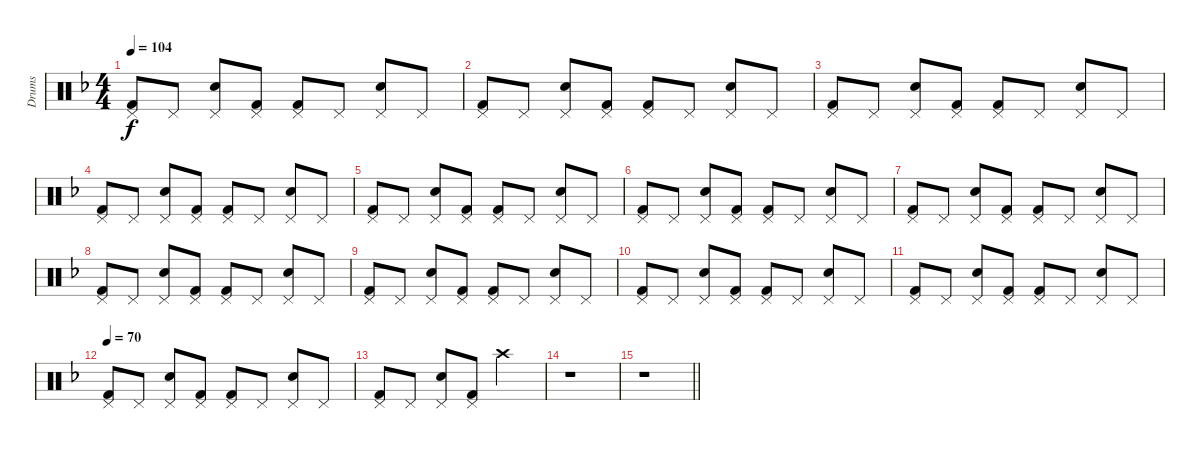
\track ("Drums" "Drums") {instrument percussion}
\staff {score}
\articulation defaults
\ts (4 4)
\tempo 104
\clef neutral
\ks f
("Pedal Hi-Hat (hit)" "Kick (hit) 2").8{dy f} "Pedal Hi-Hat (hit)".8 ("Pedal Hi-Hat (hit)" "Electric Snare (hit)").8 ("Pedal Hi-Hat (hit)" "Kick (hit) 2").8 ("Pedal Hi-Hat (hit)" "Kick (hit) 2").8 "Pedal Hi-Hat (hit)".8 ("Pedal Hi-Hat (hit)" "Electric Snare (hit)").8 "Pedal Hi-Hat (hit)".8 |
("Pedal Hi-Hat (hit)" "Kick (hit) 2").8 "Pedal Hi-Hat (hit)".8 ("Pedal Hi-Hat (hit)" "Electric Snare (hit)").8 ("Pedal Hi-Hat (hit)" "Kick (hit) 2").8 ("Pedal Hi-Hat (hit)" "Kick (hit) 2").8 "Pedal Hi-Hat (hit)".8 ("Pedal Hi-Hat (hit)" "Electric Snare (hit)").8 "Pedal Hi-Hat (hit)".8 |
("Pedal Hi-Hat (hit)" "Kick (hit) 2").8 "Pedal Hi-Hat (hit)".8 ("Pedal Hi-Hat (hit)" "Electric Snare (hit)").8 ("Pedal Hi-Hat (hit)" "Kick (hit) 2").8 ("Pedal Hi-Hat (hit)" "Kick (hit) 2").8 "Pedal Hi-Hat (hit)".8 ("Pedal Hi-Hat (hit)" "Electric Snare (hit)").8 "Pedal Hi-Hat (hit)".8 |
("Pedal Hi-Hat (hit)" "Kick (hit) 2").8 "Pedal Hi-Hat (hit)".8 ("Pedal Hi-Hat (hit)" "Electric Snare (hit)").8 ("Pedal Hi-Hat (hit)" "Kick (hit) 2").8 ("Pedal Hi-Hat (hit)" "Kick (hit) 2").8 "Pedal Hi-Hat (hit)".8 ("Pedal Hi-Hat (hit)" "Electric Snare (hit)").8 "Pedal Hi-Hat (hit)".8 |
("Pedal Hi-Hat (hit)" "Kick (hit) 2").8 "Pedal Hi-Hat (hit)".8 ("Pedal Hi-Hat (hit)" "Electric Snare (hit)").8 ("Pedal Hi-Hat (hit)" "Kick (hit) 2").8 ("Pedal Hi-Hat (hit)" "Kick (hit) 2").8 "Pedal Hi-Hat (hit)".8 ("Pedal Hi-Hat (hit)" "Electric Snare (hit)").8 "Pedal Hi-Hat (hit)".8 |
("Pedal Hi-Hat (hit)" "Kick (hit) 2").8 "Pedal Hi-Hat (hit)".8 ("Pedal Hi-Hat (hit)" "Electric Snare (hit)").8 ("Pedal Hi-Hat (hit)" "Kick (hit) 2").8 ("Pedal Hi-Hat (hit)" "Kick (hit) 2").8 "Pedal Hi-Hat (hit)".8 ("Pedal Hi-Hat (hit)" "Electric Snare (hit)").8 "Pedal Hi-Hat (hit)".8 |
("Pedal Hi-Hat (hit)" "Kick (hit) 2").8 "Pedal Hi-Hat (hit)".8 ("Pedal Hi-Hat (hit)" "Electric Snare (hit)").8 ("Pedal Hi-Hat (hit)" "Kick (hit) 2").8 ("Pedal Hi-Hat (hit)" "Kick (hit) 2").8 "Pedal Hi-Hat (hit)".8 ("Pedal Hi-Hat (hit)" "Electric Snare (hit)").8 "Pedal Hi-Hat (hit)".8 |
("Pedal Hi-Hat (hit)" "Kick (hit) 2").8 "Pedal Hi-Hat (hit)".8 ("Pedal Hi-Hat (hit)" "Electric Snare (hit)").8 ("Pedal Hi-Hat (hit)" "Kick (hit) 2").8 ("Pedal Hi-Hat (hit)" "Kick (hit) 2").8 "Pedal Hi-Hat (hit)".8 ("Pedal Hi-Hat (hit)" "Electric Snare (hit)").8 "Pedal Hi-Hat (hit)".8 |
("Pedal Hi-Hat (hit)" "Kick (hit) 2").8 "Pedal Hi-Hat (hit)".8 ("Pedal Hi-Hat (hit)" "Electric Snare (hit)").8 ("Pedal Hi-Hat (hit)" "Kick (hit) 2").8 ("Pedal Hi-Hat (hit)" "Kick (hit) 2").8 "Pedal Hi-Hat (hit)".8 ("Pedal Hi-Hat (hit)" "Electric Snare (hit)").8 "Pedal Hi-Hat (hit)".8 |
("Pedal Hi-Hat (hit)" "Kick (hit) 2").8 "Pedal Hi-Hat (hit)".8 ("Pedal Hi-Hat (hit)" "Electric Snare (hit)").8 ("Pedal Hi-Hat (hit)" "Kick (hit) 2").8 ("Pedal Hi-Hat (hit)" "Kick (hit) 2").8 "Pedal Hi-Hat (hit)".8 ("Pedal Hi-Hat (hit)" "Electric Snare (hit)").8 "Pedal Hi-Hat (hit)".8 |
("Pedal Hi-Hat (hit)" "Kick (hit) 2").8 "Pedal Hi-Hat (hit)".8 ("Pedal Hi-Hat (hit)" "Electric Snare (hit)").8 ("Pedal Hi-Hat (hit)" "Kick (hit) 2").8 ("Pedal Hi-Hat (hit)" "Kick (hit) 2").8 "Pedal Hi-Hat (hit)".8 ("Pedal Hi-Hat (hit)" "Electric Snare (hit)").8 "Pedal Hi-Hat (hit)".8 |
\tempo 70
("Pedal Hi-Hat (hit)" "Kick (hit) 2").8 "Pedal Hi-Hat (hit)".8 ("Pedal Hi-Hat (hit)" "Electric Snare (hit)").8 ("Pedal Hi-Hat (hit)" "Kick (hit) 2").8 ("Pedal Hi-Hat (hit)" "Kick (hit) 2").8 "Pedal Hi-Hat (hit)".8 ("Pedal Hi-Hat (hit)" "Electric Snare (hit)").8 "Pedal Hi-Hat (hit)".8 |
("Pedal Hi-Hat (hit)" "Kick (hit) 2").8 "Pedal Hi-Hat (hit)".8 ("Pedal Hi-Hat (hit)" "Electric Snare (hit)").8 ("Pedal Hi-Hat (hit)" "Kick (hit) 2").8 "Crash high (hit)".2 |
r.1 |
\barLineRight lightlight
r.1
